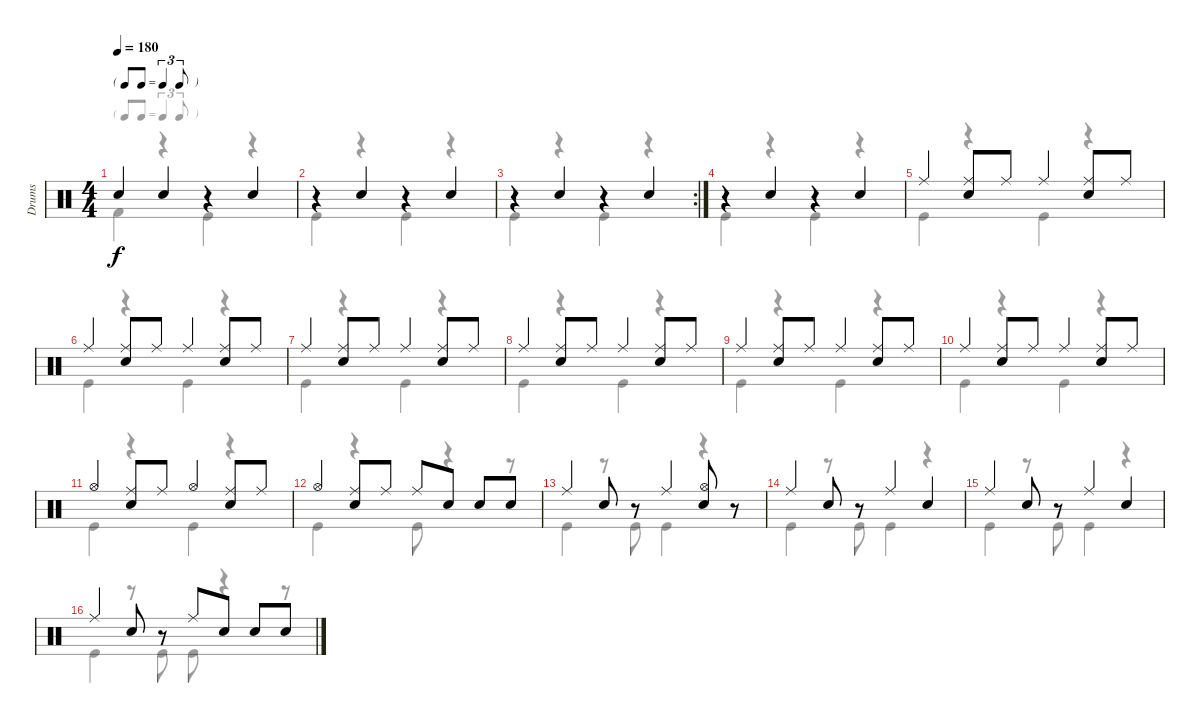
\track ("Drums" "Drums") {instrument percussion}
\staff {score}
\articulation defaults
\voice
\ts (4 4)
\tf triplet8th
\tempo 180
\clef neutral
\ks c "Snare (hit) 2".4{dy f} "Snare (hit) 2".4
r.4 "Snare (hit) 2".4 |
r.4 "Snare (hit) 2".4 r.4 "Snare (hit) 2".4 |
\rc 2
r.4 "Snare (hit) 2".4 r.4 "Snare (hit) 2".4 |
r.4 "Snare (hit) 2".4 r.4 "Snare (hit) 2".4 |
"Ride (middle)".4 ("Ride (middle)" "Snare (hit) 2").8 "Ride (middle)".8 "Ride (middle)".4 ("Ride (middle)" "Snare (hit) 2").8 "Ride (middle)".8 |
"Ride (middle)".4 ("Ride (middle)" "Snare (hit) 2").8 "Ride (middle)".8 "Ride (middle)".4 ("Ride (middle)" "Snare (hit) 2").8 "Ride (middle)".8 |
"Ride (middle)".4 ("Ride (middle)" "Snare (hit) 2").8 "Ride (middle)".8 "Ride (middle)".4 ("Ride (middle)" "Snare (hit) 2").8 "Ride (middle)".8 |
"Ride (middle)".4 ("Ride (middle)" "Snare (hit) 2").8 "Ride (middle)".8 "Ride (middle)".4 ("Ride (middle)" "Snare (hit) 2").8 "Ride (middle)".8 |
"Ride (middle)".4 ("Ride (middle)" "Snare (hit) 2").8 "Ride (middle)".8 "Ride (middle)".4 ("Ride (middle)" "Snare (hit) 2").8 "Ride (middle)".8 |
"Ride (middle)".4 ("Ride (middle)" "Snare (hit) 2").8 "Ride (middle)".8 "Ride (middle)".4 ("Ride (middle)" "Snare (hit) 2").8 "Ride (middle)".8 |
"Hi-Hat (open)".4 ("Ride (middle)" "Snare (hit) 2").8 "Ride (middle)".8 "Hi-Hat (open)".4 ("Ride (middle)" "Snare (hit) 2").8 "Ride (middle)".8 |
"Hi-Hat (open)".4 ("Ride (middle)" "Snare (hit) 2").8 "Ride (middle)".8 "Ride (middle)".8 "Snare (hit) 2".8 "Snare (hit) 2".8 "Snare (hit) 2".8 |
"Ride (middle)".4 "Snare (hit) 2".8 r.8 "Ride (middle)".4 ("Hi-Hat (open)" "Snare (hit) 2").8 r.8 |
"Ride (middle)".4 "Snare (hit) 2".8 r.8 "Ride (middle)".4 "Snare (hit) 2".4 |
"Ride (middle)".4 "Snare (hit) 2".8 r.8 "Ride (middle)".4 "Snare (hit) 2".4 |
"Ride (middle)".4 "Snare (hit) 2".8 r.8 "Ride (middle)".8 "Snare (hit) 2".8 "Snare (hit) 2".8 "Snare (hit) 2".8
\voice
\clef neutral
\ottava regular
\simile none
\ks c "Kick (hit) 2".4{dy f}
r.4 "Kick (hit)".4 r.4 |
"Kick (hit)".4 r.4 "Kick (hit)".4 r.4 |
"Kick (hit)".4 r.4 "Kick (hit)".4 r.4 |
"Kick (hit)".4 r.4 "Kick (hit)".4 r.4 |
"Kick (hit)".4 r.4 "Kick (hit)".4 r.4 |
"Kick (hit)".4 r.4 "Kick (hit)".4 r.4 |
"Kick (hit)".4 r.4 "Kick (hit)".4 r.4 |
"Kick (hit)".4 r.4 "Kick (hit)".4 r.4 |
"Kick (hit)".4 r.4 "Kick (hit)".4 r.4 |
"Kick (hit)".4 r.4 "Kick (hit)".4 r.4 |
"Kick (hit)".4 r.4 "Kick (hit)".4 r.4 |
"Kick (hit)".4 r.4 "Kick (hit)".8 r.4 r.8 |
"Kick (hit)".4 r.8 "Kick (hit)".8 "Kick (hit)".4 r.4 |
"Kick (hit)".4 r.8 "Kick (hit)".8 "Kick (hit)".4 r.4 |
"Kick (hit)".4 r.8 "Kick (hit)".8 "Kick (hit)".4 r.4 |
"Kick (hit)".4 r.8 "Kick (hit)".8 "Kick (hit)".8 r.4 r.8
